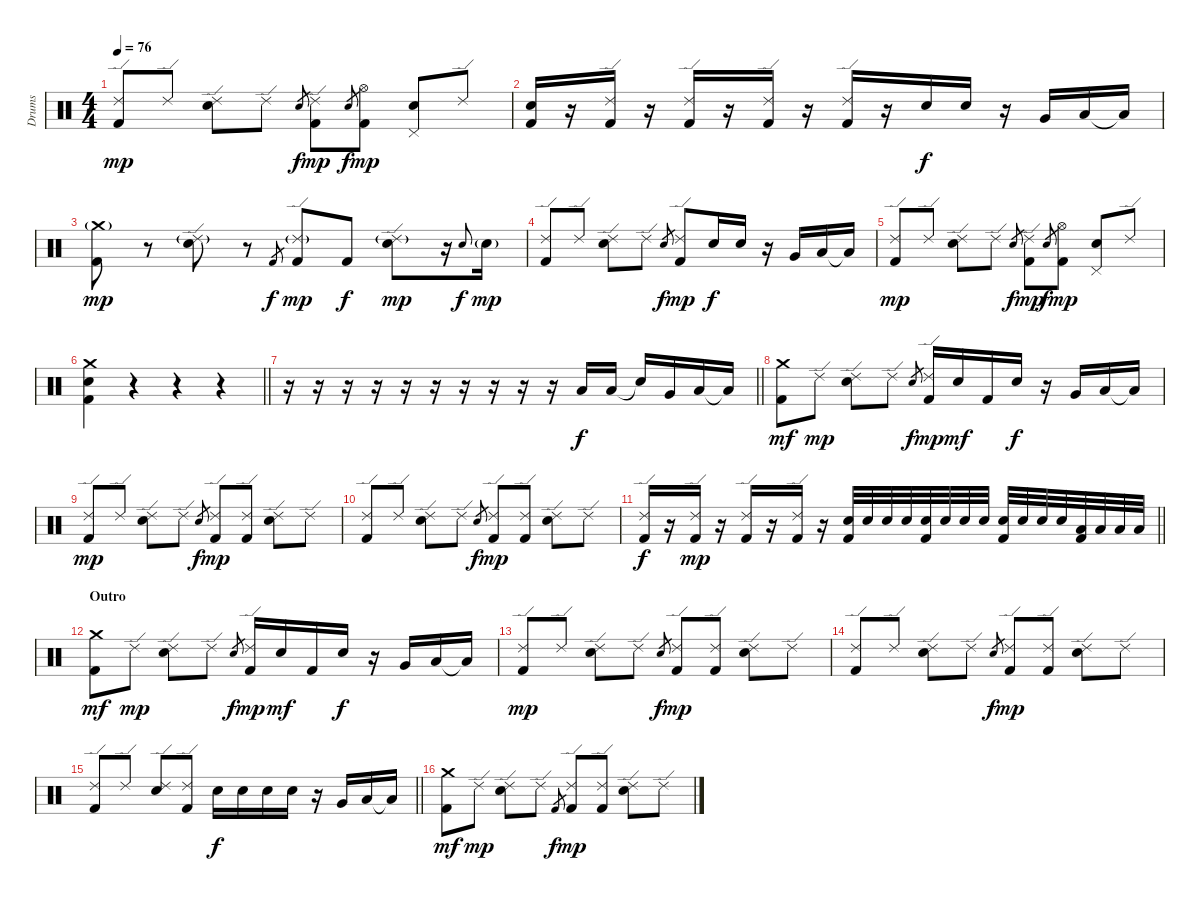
\track ("Drums" "Drums") {instrument percussion}
\staff {score}
\articulation defaults
\ts (4 4)
\tempo 76
\clef neutral
\ks c
("Ride (edge) 2" "Kick (hit) 2").8{dy mp} "Ride (edge) 2".8 ("Ride (edge) 2" "Snare (hit) 2").8 "Ride (edge) 2".8 "Snare (hit) 2".8{gr dy f} ("Ride (edge) 2" "Kick (hit) 2").8{dy mp} "Snare (hit) 2".8{gr dy f} ("Hi-Hat (open)" "Kick (hit) 2").8{dy mp} ("Pedal Hi-Hat (hit)" "Snare (hit) 2").8 "Ride (edge) 2".8 |
("Snare (hit) 2" "Kick (hit) 2").16 r.16 ("Ride (edge) 2" "Kick (hit) 2").16 r.16 ("Ride (edge) 2" "Kick (hit) 2").16 r.16 ("Ride (edge) 2" "Kick (hit) 2").16 r.16 ("Ride (edge) 2" "Kick (hit) 2").16 r.16 "Snare (hit) 2".16{dy f} "Snare (hit) 2".16 r.16 "Very Low Tom (hit)".16 "Low Floor Tom (hit)".16 "Low Floor Tom (hit)"{t}.16 |
("Crash medium (hit)"{g} "Kick (hit) 2").8{dy mp} r.8 ("Ride (edge) 2"{g} "Snare (hit) 2").8 r.8 "Kick (hit) 2".8{gr dy f} ("Ride (edge) 2"{g} "Kick (hit) 2").8{dy mp} "Kick (hit) 2".8{dy f} ("Ride (edge) 2"{g} "Snare (hit) 2").8{dy mp} r.16 "Snare (hit) 2".8{gr onbeat dy f} "Snare (hit) 2"{g}.16{dy mp} |
("Ride (edge) 2" "Kick (hit) 2").8 "Ride (edge) 2".8 ("Ride (edge) 2" "Snare (hit) 2").8 "Ride (edge) 2".8 "Snare (hit) 2".8{gr dy f} ("Ride (edge) 2" "Kick (hit) 2").8{dy mp} "Snare (hit) 2".16{dy f} "Snare (hit) 2".16 r.16 "Very Low Tom (hit)".16 "Low Floor Tom (hit)".16 "Low Floor Tom (hit)"{t}.16 |
("Ride (edge) 2" "Kick (hit) 2").8{dy mp} "Ride (edge) 2".8 ("Ride (edge) 2" "Snare (hit) 2").8 "Ride (edge) 2".8 "Snare (hit) 2".8{gr dy f} ("Ride (edge) 2" "Kick (hit) 2").8{dy mp} "Snare (hit) 2".8{gr dy f} ("Hi-Hat (open)" "Kick (hit) 2").8{dy mp} ("Pedal Hi-Hat (hit)" "Snare (hit) 2").8 "Ride (edge) 2".8 |
\barLineRight lightlight
("Crash medium (hit)" "Snare (hit) 2" "Kick (hit) 2").4 r.4 r.4 r.4 |
\barLineRight lightlight
r.16 r.16 r.16 r.16 r.16 r.16 r.16 r.16 r.16 r.16 "Low Tom (hit)".16{dy f} "Low Tom (hit)".16 "Snare (hit)"{t}.16 "Very Low Tom (hit)".16 "Low Floor Tom (hit)".16 "Low Floor Tom (hit)"{t}.16 |
("Crash medium (hit)" "Kick (hit) 2").8{dy mf} "Ride (edge) 2".8{dy mp} ("Ride (edge) 2" "Snare (hit) 2").8 "Ride (edge) 2".8 "Snare (hit) 2".8{gr dy f} ("Ride (edge) 2" "Kick (hit) 2").16{dy mp} "Snare (hit) 2".16{dy mf} "Kick (hit) 2".16 "Snare (hit) 2".16{dy f} r.16 "Very Low Tom (hit)".16 "Low Floor Tom (hit)".16 "Low Floor Tom (hit)"{t}.16 |
("Ride (edge) 2" "Kick (hit) 2").8{dy mp} "Ride (edge) 2".8 ("Ride (edge) 2" "Snare (hit) 2").8 "Ride (edge) 2".8 "Snare (hit) 2".8{gr dy f} ("Ride (edge) 2" "Kick (hit) 2").8{dy mp} ("Ride (edge) 2" "Kick (hit) 2").8 ("Ride (edge) 2" "Snare (hit) 2").8 "Ride (edge) 2".8 |
("Ride (edge) 2" "Kick (hit) 2").8 "Ride (edge) 2".8 ("Ride (edge) 2" "Snare (hit) 2").8 "Ride (edge) 2".8 "Snare (hit) 2".8{gr dy f} ("Ride (edge) 2" "Kick (hit) 2").8{dy mp} ("Ride (edge) 2" "Kick (hit) 2").8 ("Ride (edge) 2" "Snare (hit) 2").8 "Ride (edge) 2".8 |
\barLineRight lightlight
("Ride (edge) 2" "Kick (hit) 2").16{dy f} r.16 ("Ride (edge) 2" "Kick (hit) 2").16{dy mp} r.16 ("Ride (edge) 2" "Kick (hit) 2").16 r.16 ("Ride (edge) 2" "Kick (hit) 2").16 r.16 ("Snare (hit) 2" "Kick (hit) 2").32 "Snare (hit) 2".32 "Snare (hit) 2".32 "Snare (hit) 2".32 ("Snare (hit) 2" "Kick (hit) 2").32 "Snare (hit) 2".32 "Snare (hit) 2".32 "Snare (hit) 2".32 ("Snare (hit) 2" "Kick (hit) 2").32 "Snare (hit) 2".32 "Snare (hit) 2".32 "Snare (hit) 2".32 ("Low Tom (hit)" "Kick (hit) 2").32 "Low Tom (hit)".32 "Low Floor Tom (hit)".32 "Low Floor Tom (hit)".32 |
\section ("" "Outro")
("Crash medium (hit)" "Kick (hit) 2").8{dy mf} "Ride (edge) 2".8{dy mp} ("Ride (edge) 2" "Snare (hit) 2").8 "Ride (edge) 2".8 "Snare (hit) 2".8{gr dy f} ("Ride (edge) 2" "Kick (hit) 2").16{dy mp} "Snare (hit) 2".16{dy mf} "Kick (hit) 2".16 "Snare (hit) 2".16{dy f} r.16 "Very Low Tom (hit)".16 "Low Floor Tom (hit)".16 "Low Floor Tom (hit)"{t}.16 |
("Ride (edge) 2" "Kick (hit) 2").8{dy mp} "Ride (edge) 2".8 ("Ride (edge) 2" "Snare (hit) 2").8 "Ride (edge) 2".8 "Snare (hit) 2".8{gr dy f} ("Ride (edge) 2" "Kick (hit) 2").8{dy mp} ("Ride (edge) 2" "Kick (hit) 2").8 ("Ride (edge) 2" "Snare (hit) 2").8 "Ride (edge) 2".8 |
("Ride (edge) 2" "Kick (hit) 2").8 "Ride (edge) 2".8 ("Ride (edge) 2" "Snare (hit) 2").8 "Ride (edge) 2".8 "Snare (hit) 2".8{gr dy f} ("Ride (edge) 2" "Kick (hit) 2").8{dy mp} ("Ride (edge) 2" "Kick (hit) 2").8 ("Ride (edge) 2" "Snare (hit) 2").8 "Ride (edge) 2".8 |
\barLineRight lightlight
("Ride (edge) 2" "Kick (hit) 2").8 "Ride (edge) 2".8 ("Ride (edge) 2" "Snare (hit) 2").8 ("Ride (edge) 2" "Kick (hit) 2").8 "Snare (hit) 2".16{dy f} "Snare (hit) 2".16 "Snare (hit) 2".16 "Snare (hit) 2".16 r.16 "Very Low Tom (hit)".16 "Low Floor Tom (hit)".16 "Low Floor Tom (hit)"{t}.16 |
("Crash medium (hit)" "Kick (hit) 2").8{dy mf} "Ride (edge) 2".8{dy mp} ("Ride (edge) 2" "Snare (hit) 2").8 "Ride (edge) 2".8 "Kick (hit) 2".8{gr dy f} ("Ride (edge) 2" "Kick (hit) 2").8{dy mp} ("Ride (edge) 2" "Kick (hit) 2").8 ("Ride (edge) 2" "Snare (hit) 2").8 "Ride (edge) 2".8
